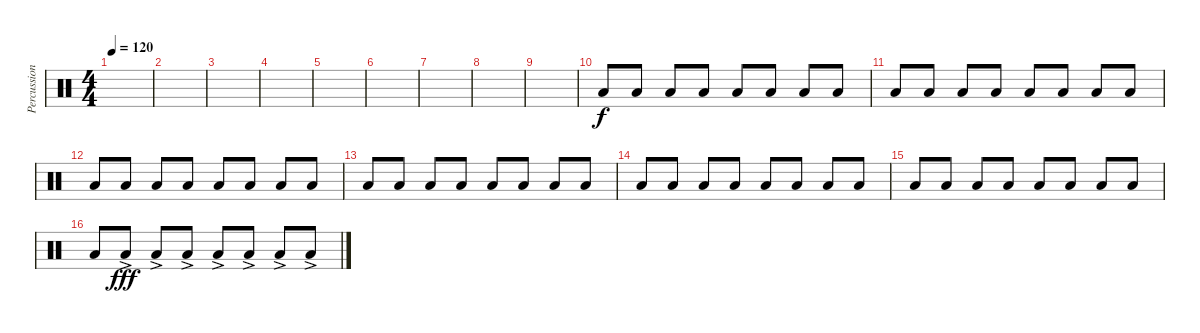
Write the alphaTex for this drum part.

\track ("Percussion" "Percussion") {instrument percussion}
\staff {score}
\articulation defaults
\ts (4 4)
\tempo 120
\clef neutral
\ks c
|
|
|
|
|
|
|
|
|
"Low Floor Tom (hit)".8 "Low Floor Tom (hit)".8 "Low Floor Tom (hit)".8 "Low Floor Tom (hit)".8 "Low Floor Tom (hit)".8 "Low Floor Tom (hit)".8 "Low Floor Tom (hit)".8 "Low Floor Tom (hit)".8 |
"Low Floor Tom (hit)".8 "Low Floor Tom (hit)".8 "Low Floor Tom (hit)".8 "Low Floor Tom (hit)".8 "Low Floor Tom (hit)".8 "Low Floor Tom (hit)".8 "Low Floor Tom (hit)".8 "Low Floor Tom (hit)".8 |
"Low Floor Tom (hit)".8 "Low Floor Tom (hit)".8 "Low Floor Tom (hit)".8 "Low Floor Tom (hit)".8 "Low Floor Tom (hit)".8 "Low Floor Tom (hit)".8 "Low Floor Tom (hit)".8 "Low Floor Tom (hit)".8 |
"Low Floor Tom (hit)".8 "Low Floor Tom (hit)".8 "Low Floor Tom (hit)".8 "Low Floor Tom (hit)".8 "Low Floor Tom (hit)".8 "Low Floor Tom (hit)".8 "Low Floor Tom (hit)".8 "Low Floor Tom (hit)".8 |
"Low Floor Tom (hit)".8 "Low Floor Tom (hit)".8 "Low Floor Tom (hit)".8 "Low Floor Tom (hit)".8 "Low Floor Tom (hit)".8 "Low Floor Tom (hit)".8 "Low Floor Tom (hit)".8 "Low Floor Tom (hit)".8 |
"Low Floor Tom (hit)".8 "Low Floor Tom (hit)".8 "Low Floor Tom (hit)".8 "Low Floor Tom (hit)".8 "Low Floor Tom (hit)".8 "Low Floor Tom (hit)".8 "Low Floor Tom (hit)".8 "Low Floor Tom (hit)".8 |
"Low Floor Tom (hit)".8 "Low Floor Tom (hit)"{ac}.8{dy fff} "Low Floor Tom (hit)"{ac}.8 "Low Floor Tom (hit)"{ac}.8 "Low Floor Tom (hit)"{ac}.8 "Low Floor Tom (hit)"{ac}.8 "Low Floor Tom (hit)"{ac}.8 "Low Floor Tom (hit)"{ac}.8
